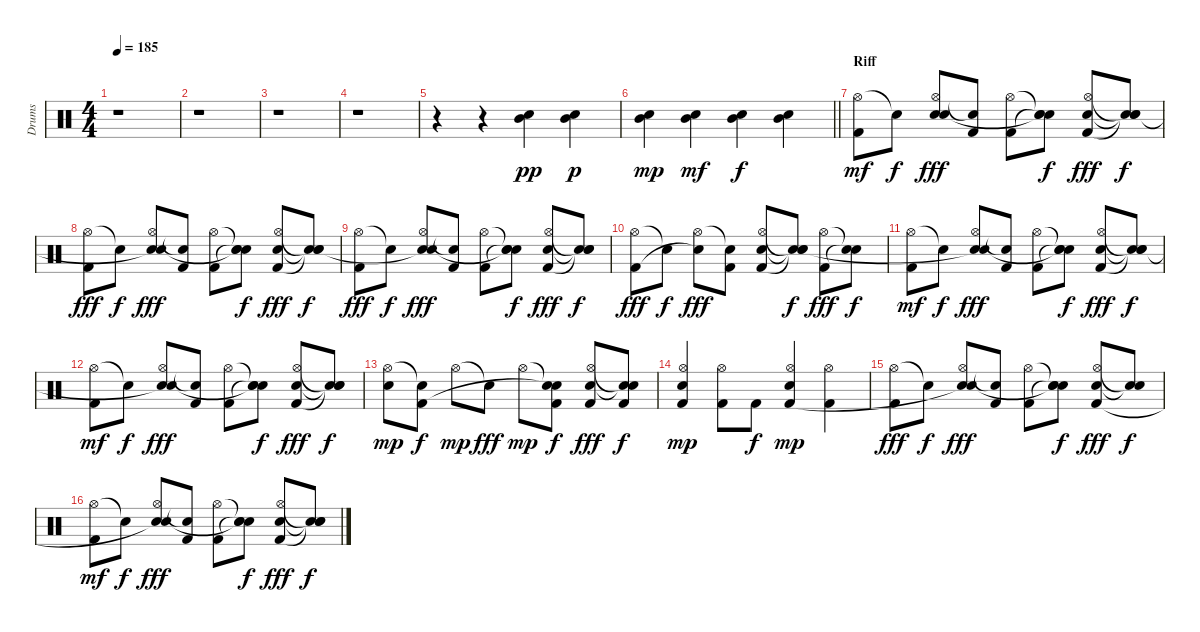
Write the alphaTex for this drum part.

\track ("Drums" "Drums") {instrument percussion}
\staff {score}
\articulation defaults
\ts (4 4)
\tempo 185
\clef neutral
\ks c
r.1{dy f} |
r.1 |
r.1 |
r.1 |
r.4 r.4 ("Electric Snare (hit)" "Mid Tom (hit)").4{dy pp} ("Electric Snare (hit)" "Mid Tom (hit)").4{dy p} |
\barLineRight lightlight
("Electric Snare (hit)" "Mid Tom (hit)").4{dy mp} ("Electric Snare (hit)" "Mid Tom (hit)").4{dy mf} ("Electric Snare (hit)" "Mid Tom (hit)").4{dy f} ("Electric Snare (hit)" "Mid Tom (hit)").4 |
\section ("" "Riff")
("Hi-Hat (open)" "Kick (hit) 2").8{dy mf} "Snare (hit)"{t}.8{dy f} ("Hi-Hat (open)" "Electric Snare (hit)" "Snare (hit)").8{dy fff} ("Snare (hit)"{t} "Kick (hit) 2").8 ("Hi-Hat (open)" "Kick (hit) 2").8 ("Snare (hit)"{t} "Snare (hit)"{t} "Snare (hit)"{t}).8{dy f} ("Hi-Hat (open)" "Electric Snare (hit)" "Kick (hit) 2").8{dy fff} ("Snare (hit)"{t} "Snare (hit)"{t} "Snare (hit)"{t}).8{dy f} |
("Hi-Hat (open)" "Kick (hit) 2").8{dy fff} "Snare (hit)"{t}.8{dy f} ("Hi-Hat (open)" "Electric Snare (hit)" "Snare (hit)"{t}).8{dy fff} ("Snare (hit)"{t} "Kick (hit) 2").8 ("Hi-Hat (open)" "Kick (hit) 2").8 ("Snare (hit)"{t} "Snare (hit)"{t} "Snare (hit)"{t}).8{dy f} ("Hi-Hat (open)" "Electric Snare (hit)" "Kick (hit) 2").8{dy fff} ("Snare (hit)"{t} "Snare (hit)"{t} "Snare (hit)"{t}).8{dy f} |
("Hi-Hat (open)" "Kick (hit) 2").8{dy fff} "Snare (hit)"{t}.8{dy f} ("Hi-Hat (open)" "Electric Snare (hit)" "Snare (hit)"{t}).8{dy fff} ("Snare (hit)"{t} "Kick (hit) 2").8 ("Hi-Hat (open)" "Kick (hit) 2").8 ("Snare (hit)"{t} "Snare (hit)"{t} "Snare (hit)"{t}).8{dy f} ("Hi-Hat (open)" "Electric Snare (hit)" "Kick (hit) 2").8{dy fff} ("Snare (hit)"{t} "Snare (hit)"{t} "Snare (hit)"{t}).8{dy f} |
("Hi-Hat (open)" "Kick (hit) 2").8{dy fff} "Snare (hit)"{t}.8{dy f} ("Hi-Hat (open)" "Snare (hit)"{t}).8{dy fff} ("Snare (hit)"{t} "Kick (hit) 2").8 ("Hi-Hat (open)" "Electric Snare (hit)" "Kick (hit) 2").8 ("Snare (hit)"{t} "Snare (hit)"{t} "Snare (hit)"{t}).8{dy f} ("Hi-Hat (open)" "Kick (hit) 2").8{dy fff} ("Snare (hit)"{t} "Snare (hit)"{t}).8{dy f} |
("Hi-Hat (open)" "Kick (hit) 2").8{dy mf} "Snare (hit)"{t}.8{dy f} ("Hi-Hat (open)" "Electric Snare (hit)" "Snare (hit)"{t}).8{dy fff} ("Snare (hit)"{t} "Kick (hit) 2").8 ("Hi-Hat (open)" "Kick (hit) 2").8 ("Snare (hit)"{t} "Snare (hit)"{t} "Snare (hit)"{t}).8{dy f} ("Hi-Hat (open)" "Electric Snare (hit)" "Kick (hit) 2").8{dy fff} ("Snare (hit)"{t} "Snare (hit)"{t} "Snare (hit)"{t}).8{dy f} |
("Hi-Hat (open)" "Kick (hit) 2").8{dy mf} "Snare (hit)"{t}.8{dy f} ("Hi-Hat (open)" "Electric Snare (hit)" "Snare (hit)"{t}).8{dy fff} ("Snare (hit)"{t} "Kick (hit) 2").8 ("Hi-Hat (open)" "Kick (hit) 2").8 ("Snare (hit)"{t} "Snare (hit)"{t} "Snare (hit)"{t}).8{dy f} ("Hi-Hat (open)" "Electric Snare (hit)" "Kick (hit) 2").8{dy fff} ("Snare (hit)"{t} "Snare (hit)"{t} "Snare (hit)"{t}).8{dy f} |
("Hi-Hat (open)" "Electric Snare (hit)").8{dy mp} ("Snare (hit)"{t} "Kick (hit) 2").8{dy f} "Hi-Hat (open)".8{dy mp} "Snare (hit)"{t}.8{dy fff} "Hi-Hat (open)".8{dy mp} ("Snare (hit)"{t} "Snare (hit)"{t} "Kick (hit) 2").8{dy f} ("Hi-Hat (open)" "Electric Snare (hit)" "Kick (hit) 2").8{dy fff} ("Snare (hit)"{t} "Snare (hit)"{t} "Kick (hit) 2").8{dy f} |
("Hi-Hat (open)" "Electric Snare (hit)" "Kick (hit) 2").4{dy mp} ("Hi-Hat (open)" "Kick (hit) 2").8 "Kick (hit) 2".8{dy f} ("Hi-Hat (open)" "Electric Snare (hit)" "Kick (hit) 2").4{dy mp} ("Hi-Hat (open)" "Kick (hit) 2").4 |
("Hi-Hat (open)" "Kick (hit) 2").8{dy fff} "Snare (hit)"{t}.8{dy f} ("Hi-Hat (open)" "Electric Snare (hit)" "Snare (hit)"{t}).8{dy fff} ("Snare (hit)"{t} "Kick (hit) 2").8 ("Hi-Hat (open)" "Kick (hit) 2").8 ("Snare (hit)"{t} "Snare (hit)"{t} "Snare (hit)"{t}).8{dy f} ("Hi-Hat (open)" "Electric Snare (hit)" "Kick (hit) 2").8{dy fff} ("Snare (hit)"{t} "Snare (hit)"{t}).8{dy f} |
("Hi-Hat (open)" "Kick (hit) 2").8{dy mf} "Snare (hit)"{t}.8{dy f} ("Hi-Hat (open)" "Electric Snare (hit)" "Snare (hit)"{t}).8{dy fff} ("Snare (hit)"{t} "Kick (hit) 2").8 ("Hi-Hat (open)" "Kick (hit) 2").8 ("Snare (hit)"{t} "Snare (hit)"{t} "Snare (hit)"{t}).8{dy f} ("Hi-Hat (open)" "Electric Snare (hit)" "Kick (hit) 2").8{dy fff} ("Snare (hit)"{t} "Snare (hit)"{t} "Snare (hit)"{t}).8{dy f}
